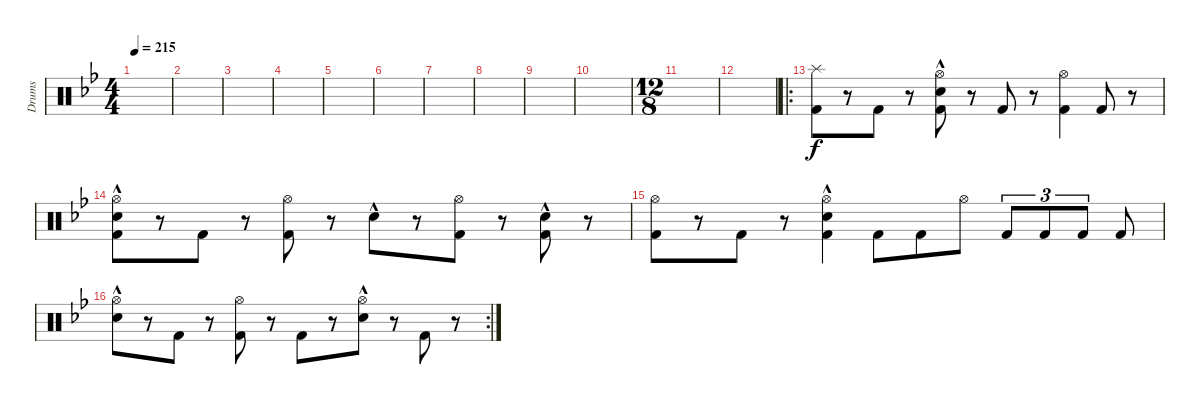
\defaultSystemsLayout 4
\bracketExtendMode groupsimilarinstruments
\otherSystemsTrackNameOrientation horizontal
\track ("Drumkit" "Drums") {instrument percussion}
\staff {score}
\articulation defaults
\ts (4 4)
\tempo 215
\clef neutral
\ks bb
|
|
|
|
|
|
|
|
|
|
\ts (12 8)
|
|
\ro
("Kick (hit) 2"{acc forcenatural} "Splash (hit)"{acc forcenatural}).8{beam Down} r.8{beam Down} "Kick (hit) 2"{acc forcenatural}.8{beam Down} r.8{beam Down} ("Kick (hit) 2"{acc forcenatural} "Hi-Hat (open)"{acc forcenatural} "Snare (hit) 2"{hac acc forcenatural}).8{beam Down} r.8{beam Down} "Kick (hit) 2"{acc forcenatural}.8{beam Up} r.8{beam Up} ("Kick (hit) 2"{acc forcenatural} "Hi-Hat (open)"{acc forcenatural}).4{beam Down} "Kick (hit) 2"{acc forcenatural}.8{beam Up} r.8{beam Up} |
("Kick (hit) 2"{acc forcenatural} "Hi-Hat (open)"{acc forcenatural} "Snare (hit) 2"{hac acc forcenatural}).8{beam Down} r.8{beam Down} "Kick (hit) 2"{acc forcenatural}.8{beam Down} r.8{beam Down} ("Kick (hit) 2"{acc forcenatural} "Hi-Hat (open)"{acc forcenatural}).8{beam Down} r.8{beam Down} "Snare (hit) 2"{hac acc forcenatural}.8{beam Down} r.8{beam Down} ("Kick (hit) 2"{acc forcenatural} "Hi-Hat (open)"{acc forcenatural}).8{beam Down} r.8{beam Down} ("Kick (hit) 2"{acc forcenatural} "Snare (hit) 2"{hac acc forcenatural}).8{beam Up} r.8{beam Up} |
("Kick (hit) 2"{acc forcenatural} "Hi-Hat (open)"{acc forcenatural}).8{beam Down} r.8{beam Down} "Kick (hit) 2"{acc forcenatural}.8{beam Down} r.8{beam Down} ("Kick (hit) 2"{acc forcenatural} "Snare (hit) 2"{hac acc forcenatural} "Hi-Hat (open)"{acc forcenatural}).4{beam Down} "Kick (hit) 2"{acc forcenatural}.8{beam Down} "Kick (hit) 2"{acc forcenatural}.8{beam Down} "Hi-Hat (open)"{acc forcenatural}.8{beam Down} "Kick (hit) 2"{acc forcenatural}.8{tu (3 2) beam Up} "Kick (hit) 2"{acc forcenatural}.8{tu (3 2) beam Up} "Kick (hit) 2"{acc forcenatural}.8{tu (3 2) beam Up} "Kick (hit) 2"{acc forcenatural}.8{beam Up} |
\rc 2
("Snare (hit) 2"{hac acc forcenatural} "Hi-Hat (open)"{acc forcenatural}).8{beam Down} r.8{beam Down} "Kick (hit) 2"{acc forcenatural}.8{beam Down} r.8{beam Down} ("Kick (hit) 2"{acc forcenatural} "Hi-Hat (open)"{acc forcenatural}).8{beam Down} r.8{beam Down} "Kick (hit) 2"{acc forcenatural}.8{beam Down} r.8{beam Down} ("Snare (hit) 2"{hac acc forcenatural} "Hi-Hat (open)"{acc forcenatural}).8{beam Down} r.8{beam Down} "Kick (hit) 2"{acc forcenatural}.8{beam Up} r.8{beam Up}
